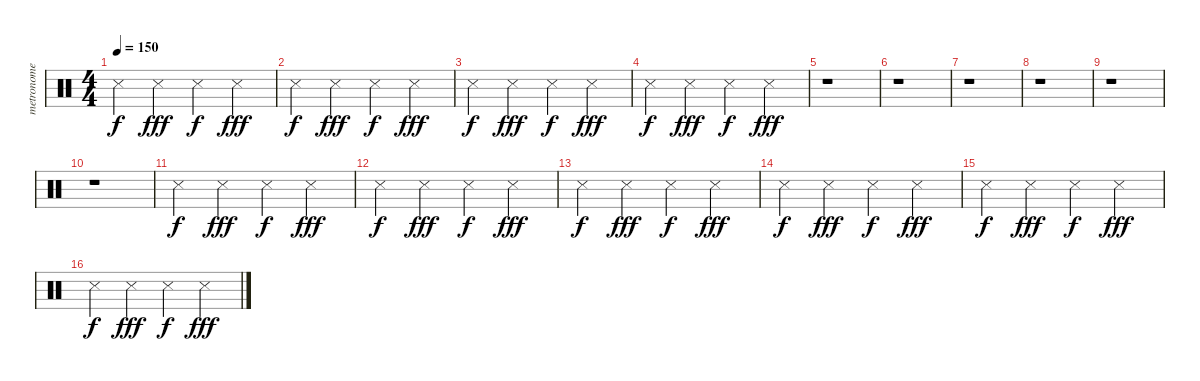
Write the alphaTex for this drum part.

\track ("metronome" "metronome") {instrument percussion}
\staff {score}
\articulation defaults
\ts (4 4)
\tempo 150
\clef neutral
\ks c "Snare (side stick) 3".4{dy f} "Snare (side stick) 3".4{dy fff} "Snare (side stick) 3".4{dy f} "Snare (side stick) 3".4{dy fff}
|
"Snare (side stick) 3".4{dy f} "Snare (side stick) 3".4{dy fff} "Snare (side stick) 3".4{dy f} "Snare (side stick) 3".4{dy fff} |
"Snare (side stick) 3".4{dy f} "Snare (side stick) 3".4{dy fff} "Snare (side stick) 3".4{dy f} "Snare (side stick) 3".4{dy fff} |
"Snare (side stick) 3".4{dy f} "Snare (side stick) 3".4{dy fff} "Snare (side stick) 3".4{dy f} "Snare (side stick) 3".4{dy fff} |
r.1 |
r.1 |
r.1 |
r.1 |
r.1 |
r.1 |
"Snare (side stick) 3".4{dy f} "Snare (side stick) 3".4{dy fff} "Snare (side stick) 3".4{dy f} "Snare (side stick) 3".4{dy fff} |
"Snare (side stick) 3".4{dy f} "Snare (side stick) 3".4{dy fff} "Snare (side stick) 3".4{dy f} "Snare (side stick) 3".4{dy fff} |
"Snare (side stick) 3".4{dy f} "Snare (side stick) 3".4{dy fff} "Snare (side stick) 3".4{dy f} "Snare (side stick) 3".4{dy fff} |
"Snare (side stick) 3".4{dy f} "Snare (side stick) 3".4{dy fff} "Snare (side stick) 3".4{dy f} "Snare (side stick) 3".4{dy fff} |
"Snare (side stick) 3".4{dy f} "Snare (side stick) 3".4{dy fff} "Snare (side stick) 3".4{dy f} "Snare (side stick) 3".4{dy fff} |
"Snare (side stick) 3".4{dy f} "Snare (side stick) 3".4{dy fff} "Snare (side stick) 3".4{dy f} "Snare (side stick) 3".4{dy fff}
